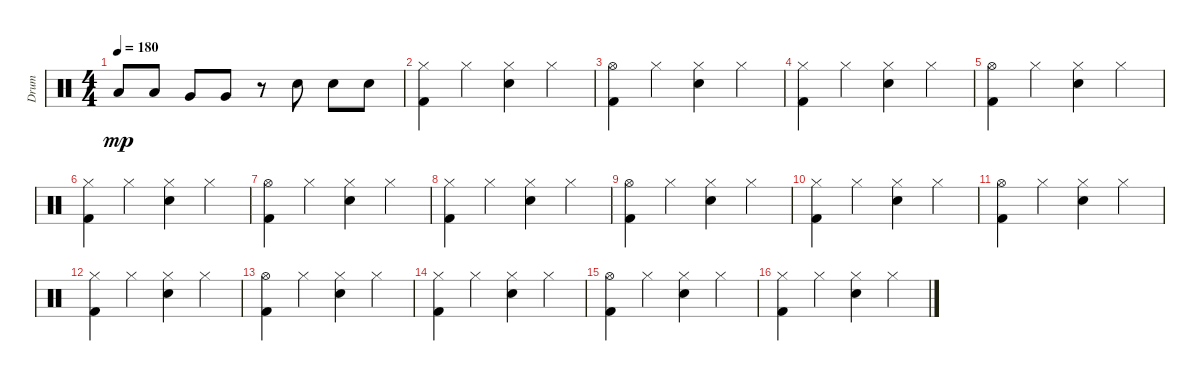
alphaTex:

\track ("Drum" "Drum") {instrument percussion}
\staff {score}
\articulation defaults
\ts (4 4)
\tempo 180
\clef neutral
\ks c "Low Tom (hit)".8{dy mp} "Low Tom (hit)".8 "Very Low Tom (hit)".8 "Very Low Tom (hit)".8
r.8 "Snare (hit) 2".8 "Snare (hit) 2".8 "Snare (hit) 2".8 |
("Hi-Hat (closed)" "Kick (hit) 2").4 "Hi-Hat (closed)".4 ("Hi-Hat (closed)" "Snare (hit) 2").4 "Hi-Hat (closed)".4 |
("Hi-Hat (open)" "Kick (hit) 2").4 "Hi-Hat (closed)".4 ("Hi-Hat (closed)" "Snare (hit) 2").4 "Hi-Hat (closed)".4 |
("Hi-Hat (closed)" "Kick (hit) 2").4 "Hi-Hat (closed)".4 ("Hi-Hat (closed)" "Snare (hit) 2").4 "Hi-Hat (closed)".4 |
("Hi-Hat (open)" "Kick (hit) 2").4 "Hi-Hat (closed)".4 ("Hi-Hat (closed)" "Snare (hit) 2").4 "Hi-Hat (closed)".4 |
("Hi-Hat (closed)" "Kick (hit) 2").4 "Hi-Hat (closed)".4 ("Hi-Hat (closed)" "Snare (hit) 2").4 "Hi-Hat (closed)".4 |
("Hi-Hat (open)" "Kick (hit) 2").4 "Hi-Hat (closed)".4 ("Hi-Hat (closed)" "Snare (hit) 2").4 "Hi-Hat (closed)".4 |
("Hi-Hat (closed)" "Kick (hit) 2").4 "Hi-Hat (closed)".4 ("Hi-Hat (closed)" "Snare (hit) 2").4 "Hi-Hat (closed)".4 |
("Hi-Hat (open)" "Kick (hit) 2").4 "Hi-Hat (closed)".4 ("Hi-Hat (closed)" "Snare (hit) 2").4 "Hi-Hat (closed)".4 |
("Hi-Hat (closed)" "Kick (hit) 2").4 "Hi-Hat (closed)".4 ("Hi-Hat (closed)" "Snare (hit) 2").4 "Hi-Hat (closed)".4 |
("Hi-Hat (open)" "Kick (hit) 2").4 "Hi-Hat (closed)".4 ("Hi-Hat (closed)" "Snare (hit) 2").4 "Hi-Hat (closed)".4 |
("Hi-Hat (closed)" "Kick (hit) 2").4 "Hi-Hat (closed)".4 ("Hi-Hat (closed)" "Snare (hit) 2").4 "Hi-Hat (closed)".4 |
("Hi-Hat (open)" "Kick (hit) 2").4 "Hi-Hat (closed)".4 ("Hi-Hat (closed)" "Snare (hit) 2").4 "Hi-Hat (closed)".4 |
("Hi-Hat (closed)" "Kick (hit) 2").4 "Hi-Hat (closed)".4 ("Hi-Hat (closed)" "Snare (hit) 2").4 "Hi-Hat (closed)".4 |
("Hi-Hat (open)" "Kick (hit) 2").4 "Hi-Hat (closed)".4 ("Hi-Hat (closed)" "Snare (hit) 2").4 "Hi-Hat (closed)".4 |
("Hi-Hat (closed)" "Kick (hit) 2").4 "Hi-Hat (closed)".4 ("Hi-Hat (closed)" "Snare (hit) 2").4 "Hi-Hat (closed)".4
